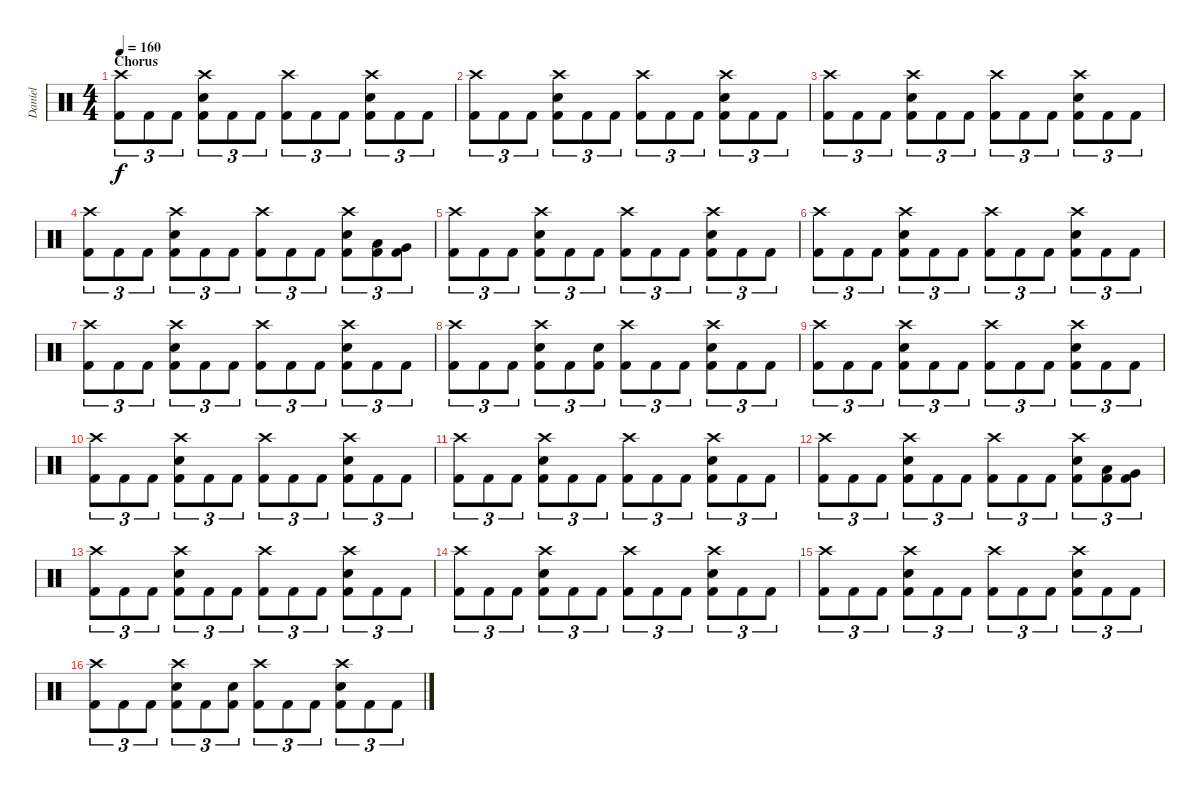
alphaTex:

\track ("Daniel" "Daniel") {instrument percussion}
\staff {score}
\articulation defaults
\ts (4 4)
\section ("" "Chorus ")
\tempo 160
\clef neutral
\ks c
("Crash high (hit)" "Kick (hit) 2").8{tu (3 2) dy f} "Kick (hit) 2".8{tu (3 2)} "Kick (hit) 2".8{tu (3 2)} ("Crash high (hit)" "Electric Snare (hit)" "Kick (hit) 2").8{tu (3 2)} "Kick (hit) 2".8{tu (3 2)} "Kick (hit) 2".8{tu (3 2)} ("Crash high (hit)" "Kick (hit) 2").8{tu (3 2)} "Kick (hit) 2".8{tu (3 2)} "Kick (hit) 2".8{tu (3 2)} ("Crash high (hit)" "Electric Snare (hit)" "Kick (hit) 2").8{tu (3 2)} "Kick (hit) 2".8{tu (3 2)} "Kick (hit) 2".8{tu (3 2)} |
("Crash high (hit)" "Kick (hit) 2").8{tu (3 2)} "Kick (hit) 2".8{tu (3 2)} "Kick (hit) 2".8{tu (3 2)} ("Crash high (hit)" "Electric Snare (hit)" "Kick (hit) 2").8{tu (3 2)} "Kick (hit) 2".8{tu (3 2)} "Kick (hit) 2".8{tu (3 2)} ("Crash high (hit)" "Kick (hit) 2").8{tu (3 2)} "Kick (hit) 2".8{tu (3 2)} "Kick (hit) 2".8{tu (3 2)} ("Crash high (hit)" "Electric Snare (hit)" "Kick (hit) 2").8{tu (3 2)} "Kick (hit) 2".8{tu (3 2)} "Kick (hit) 2".8{tu (3 2)} |
("Crash high (hit)" "Kick (hit) 2").8{tu (3 2)} "Kick (hit) 2".8{tu (3 2)} "Kick (hit) 2".8{tu (3 2)} ("Crash high (hit)" "Electric Snare (hit)" "Kick (hit) 2").8{tu (3 2)} "Kick (hit) 2".8{tu (3 2)} "Kick (hit) 2".8{tu (3 2)} ("Crash high (hit)" "Kick (hit) 2").8{tu (3 2)} "Kick (hit) 2".8{tu (3 2)} "Kick (hit) 2".8{tu (3 2)} ("Crash high (hit)" "Electric Snare (hit)" "Kick (hit) 2").8{tu (3 2)} "Kick (hit) 2".8{tu (3 2)} "Kick (hit) 2".8{tu (3 2)} |
("Crash high (hit)" "Kick (hit) 2").8{tu (3 2)} "Kick (hit) 2".8{tu (3 2)} "Kick (hit) 2".8{tu (3 2)} ("Crash high (hit)" "Electric Snare (hit)" "Kick (hit) 2").8{tu (3 2)} "Kick (hit) 2".8{tu (3 2)} "Kick (hit) 2".8{tu (3 2)} ("Crash high (hit)" "Kick (hit) 2").8{tu (3 2)} "Kick (hit) 2".8{tu (3 2)} "Kick (hit) 2".8{tu (3 2)} ("Crash high (hit)" "Electric Snare (hit)" "Kick (hit) 2").8{tu (3 2)} ("Low Tom (hit)" "Kick (hit) 2").8{tu (3 2)} ("Very Low Tom (hit)" "Kick (hit) 2").8{tu (3 2)} |
("Crash high (hit)" "Kick (hit) 2").8{tu (3 2)} "Kick (hit) 2".8{tu (3 2)} "Kick (hit) 2".8{tu (3 2)} ("Crash high (hit)" "Electric Snare (hit)" "Kick (hit) 2").8{tu (3 2)} "Kick (hit) 2".8{tu (3 2)} "Kick (hit) 2".8{tu (3 2)} ("Crash high (hit)" "Kick (hit) 2").8{tu (3 2)} "Kick (hit) 2".8{tu (3 2)} "Kick (hit) 2".8{tu (3 2)} ("Crash high (hit)" "Electric Snare (hit)" "Kick (hit) 2").8{tu (3 2)} "Kick (hit) 2".8{tu (3 2)} "Kick (hit) 2".8{tu (3 2)} |
("Crash high (hit)" "Kick (hit) 2").8{tu (3 2)} "Kick (hit) 2".8{tu (3 2)} "Kick (hit) 2".8{tu (3 2)} ("Crash high (hit)" "Electric Snare (hit)" "Kick (hit) 2").8{tu (3 2)} "Kick (hit) 2".8{tu (3 2)} "Kick (hit) 2".8{tu (3 2)} ("Crash high (hit)" "Kick (hit) 2").8{tu (3 2)} "Kick (hit) 2".8{tu (3 2)} "Kick (hit) 2".8{tu (3 2)} ("Crash high (hit)" "Electric Snare (hit)" "Kick (hit) 2").8{tu (3 2)} "Kick (hit) 2".8{tu (3 2)} "Kick (hit) 2".8{tu (3 2)} |
("Crash high (hit)" "Kick (hit) 2").8{tu (3 2)} "Kick (hit) 2".8{tu (3 2)} "Kick (hit) 2".8{tu (3 2)} ("Crash high (hit)" "Electric Snare (hit)" "Kick (hit) 2").8{tu (3 2)} "Kick (hit) 2".8{tu (3 2)} "Kick (hit) 2".8{tu (3 2)} ("Crash high (hit)" "Kick (hit) 2").8{tu (3 2)} "Kick (hit) 2".8{tu (3 2)} "Kick (hit) 2".8{tu (3 2)} ("Crash high (hit)" "Electric Snare (hit)" "Kick (hit) 2").8{tu (3 2)} "Kick (hit) 2".8{tu (3 2)} "Kick (hit) 2".8{tu (3 2)} |
("Crash high (hit)" "Kick (hit) 2").8{tu (3 2)} "Kick (hit) 2".8{tu (3 2)} "Kick (hit) 2".8{tu (3 2)} ("Crash high (hit)" "Electric Snare (hit)" "Kick (hit) 2").8{tu (3 2)} "Kick (hit) 2".8{tu (3 2)} ("Electric Snare (hit)" "Kick (hit) 2").8{tu (3 2)} ("Crash high (hit)" "Kick (hit) 2").8{tu (3 2)} "Kick (hit) 2".8{tu (3 2)} "Kick (hit) 2".8{tu (3 2)} ("Crash high (hit)" "Electric Snare (hit)" "Kick (hit) 2").8{tu (3 2)} "Kick (hit) 2".8{tu (3 2)} "Kick (hit) 2".8{tu (3 2)} |
("Crash high (hit)" "Kick (hit) 2").8{tu (3 2)} "Kick (hit) 2".8{tu (3 2)} "Kick (hit) 2".8{tu (3 2)} ("Crash high (hit)" "Electric Snare (hit)" "Kick (hit) 2").8{tu (3 2)} "Kick (hit) 2".8{tu (3 2)} "Kick (hit) 2".8{tu (3 2)} ("Crash high (hit)" "Kick (hit) 2").8{tu (3 2)} "Kick (hit) 2".8{tu (3 2)} "Kick (hit) 2".8{tu (3 2)} ("Crash high (hit)" "Electric Snare (hit)" "Kick (hit) 2").8{tu (3 2)} "Kick (hit) 2".8{tu (3 2)} "Kick (hit) 2".8{tu (3 2)} |
("Crash high (hit)" "Kick (hit) 2").8{tu (3 2)} "Kick (hit) 2".8{tu (3 2)} "Kick (hit) 2".8{tu (3 2)} ("Crash high (hit)" "Electric Snare (hit)" "Kick (hit) 2").8{tu (3 2)} "Kick (hit) 2".8{tu (3 2)} "Kick (hit) 2".8{tu (3 2)} ("Crash high (hit)" "Kick (hit) 2").8{tu (3 2)} "Kick (hit) 2".8{tu (3 2)} "Kick (hit) 2".8{tu (3 2)} ("Crash high (hit)" "Electric Snare (hit)" "Kick (hit) 2").8{tu (3 2)} "Kick (hit) 2".8{tu (3 2)} "Kick (hit) 2".8{tu (3 2)} |
("Crash high (hit)" "Kick (hit) 2").8{tu (3 2)} "Kick (hit) 2".8{tu (3 2)} "Kick (hit) 2".8{tu (3 2)} ("Crash high (hit)" "Electric Snare (hit)" "Kick (hit) 2").8{tu (3 2)} "Kick (hit) 2".8{tu (3 2)} "Kick (hit) 2".8{tu (3 2)} ("Crash high (hit)" "Kick (hit) 2").8{tu (3 2)} "Kick (hit) 2".8{tu (3 2)} "Kick (hit) 2".8{tu (3 2)} ("Crash high (hit)" "Electric Snare (hit)" "Kick (hit) 2").8{tu (3 2)} "Kick (hit) 2".8{tu (3 2)} "Kick (hit) 2".8{tu (3 2)} |
("Crash high (hit)" "Kick (hit) 2").8{tu (3 2)} "Kick (hit) 2".8{tu (3 2)} "Kick (hit) 2".8{tu (3 2)} ("Crash high (hit)" "Electric Snare (hit)" "Kick (hit) 2").8{tu (3 2)} "Kick (hit) 2".8{tu (3 2)} "Kick (hit) 2".8{tu (3 2)} ("Crash high (hit)" "Kick (hit) 2").8{tu (3 2)} "Kick (hit) 2".8{tu (3 2)} "Kick (hit) 2".8{tu (3 2)} ("Crash high (hit)" "Electric Snare (hit)" "Kick (hit) 2").8{tu (3 2)} ("Low Tom (hit)" "Kick (hit) 2").8{tu (3 2)} ("Very Low Tom (hit)" "Kick (hit) 2").8{tu (3 2)} |
("Crash high (hit)" "Kick (hit) 2").8{tu (3 2)} "Kick (hit) 2".8{tu (3 2)} "Kick (hit) 2".8{tu (3 2)} ("Crash high (hit)" "Electric Snare (hit)" "Kick (hit) 2").8{tu (3 2)} "Kick (hit) 2".8{tu (3 2)} "Kick (hit) 2".8{tu (3 2)} ("Crash high (hit)" "Kick (hit) 2").8{tu (3 2)} "Kick (hit) 2".8{tu (3 2)} "Kick (hit) 2".8{tu (3 2)} ("Crash high (hit)" "Electric Snare (hit)" "Kick (hit) 2").8{tu (3 2)} "Kick (hit) 2".8{tu (3 2)} "Kick (hit) 2".8{tu (3 2)} |
("Crash high (hit)" "Kick (hit) 2").8{tu (3 2)} "Kick (hit) 2".8{tu (3 2)} "Kick (hit) 2".8{tu (3 2)} ("Crash high (hit)" "Electric Snare (hit)" "Kick (hit) 2").8{tu (3 2)} "Kick (hit) 2".8{tu (3 2)} "Kick (hit) 2".8{tu (3 2)} ("Crash high (hit)" "Kick (hit) 2").8{tu (3 2)} "Kick (hit) 2".8{tu (3 2)} "Kick (hit) 2".8{tu (3 2)} ("Crash high (hit)" "Electric Snare (hit)" "Kick (hit) 2").8{tu (3 2)} "Kick (hit) 2".8{tu (3 2)} "Kick (hit) 2".8{tu (3 2)} |
("Crash high (hit)" "Kick (hit) 2").8{tu (3 2)} "Kick (hit) 2".8{tu (3 2)} "Kick (hit) 2".8{tu (3 2)} ("Crash high (hit)" "Electric Snare (hit)" "Kick (hit) 2").8{tu (3 2)} "Kick (hit) 2".8{tu (3 2)} "Kick (hit) 2".8{tu (3 2)} ("Crash high (hit)" "Kick (hit) 2").8{tu (3 2)} "Kick (hit) 2".8{tu (3 2)} "Kick (hit) 2".8{tu (3 2)} ("Crash high (hit)" "Electric Snare (hit)" "Kick (hit) 2").8{tu (3 2)} "Kick (hit) 2".8{tu (3 2)} "Kick (hit) 2".8{tu (3 2)} |
("Crash high (hit)" "Kick (hit) 2").8{tu (3 2)} "Kick (hit) 2".8{tu (3 2)} "Kick (hit) 2".8{tu (3 2)} ("Crash high (hit)" "Electric Snare (hit)" "Kick (hit) 2").8{tu (3 2)} "Kick (hit) 2".8{tu (3 2)} ("Electric Snare (hit)" "Kick (hit) 2").8{tu (3 2)} ("Crash high (hit)" "Kick (hit) 2").8{tu (3 2)} "Kick (hit) 2".8{tu (3 2)} "Kick (hit) 2".8{tu (3 2)} ("Crash high (hit)" "Electric Snare (hit)" "Kick (hit) 2").8{tu (3 2)} "Kick (hit) 2".8{tu (3 2)} "Kick (hit) 2".8{tu (3 2)}
